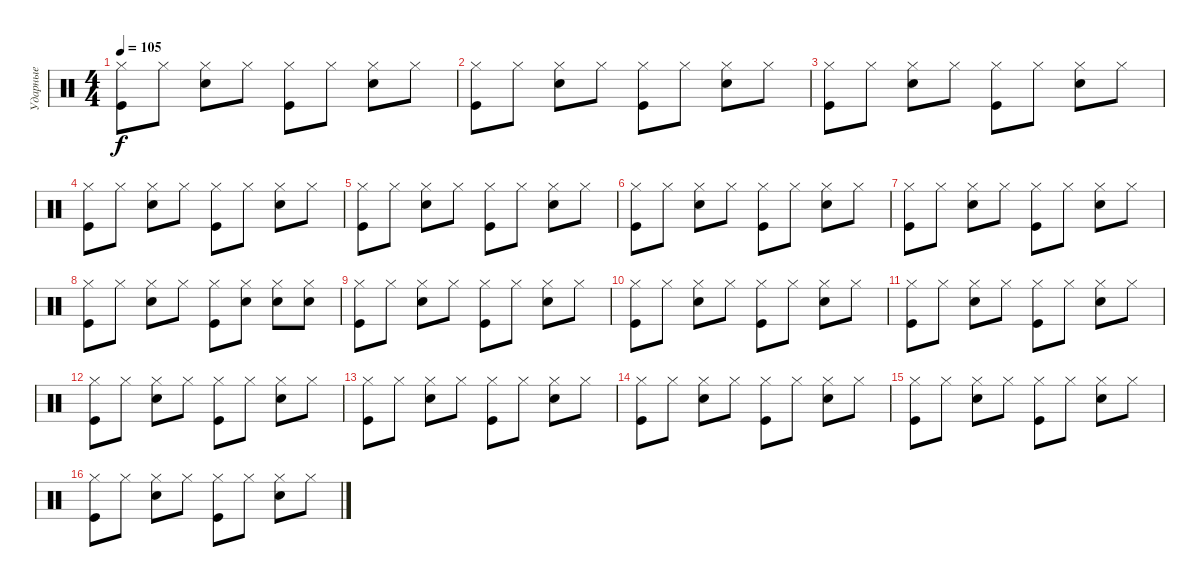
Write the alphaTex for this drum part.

\track ("Ударные" "Ударные") {instrument percussion}
\staff {score}
\articulation defaults
\ts (4 4)
\tempo 105
\clef neutral
\ks c
("Kick (hit)" "Hi-Hat (closed)").8{dy f} "Hi-Hat (closed)".8 ("Snare (hit) 2" "Hi-Hat (closed)").8 "Hi-Hat (closed)".8 ("Kick (hit)" "Hi-Hat (closed)").8 "Hi-Hat (closed)".8 ("Snare (hit) 2" "Hi-Hat (closed)").8 "Hi-Hat (closed)".8 |
("Kick (hit)" "Hi-Hat (closed)").8 "Hi-Hat (closed)".8 ("Snare (hit) 2" "Hi-Hat (closed)").8 "Hi-Hat (closed)".8 ("Kick (hit)" "Hi-Hat (closed)").8 "Hi-Hat (closed)".8 ("Snare (hit) 2" "Hi-Hat (closed)").8 "Hi-Hat (closed)".8 |
("Kick (hit)" "Hi-Hat (closed)").8 "Hi-Hat (closed)".8 ("Snare (hit) 2" "Hi-Hat (closed)").8 "Hi-Hat (closed)".8 ("Kick (hit)" "Hi-Hat (closed)").8 "Hi-Hat (closed)".8 ("Snare (hit) 2" "Hi-Hat (closed)").8 "Hi-Hat (closed)".8 |
("Kick (hit)" "Hi-Hat (closed)").8 "Hi-Hat (closed)".8 ("Snare (hit) 2" "Hi-Hat (closed)").8 "Hi-Hat (closed)".8 ("Kick (hit)" "Hi-Hat (closed)").8 "Hi-Hat (closed)".8 ("Snare (hit) 2" "Hi-Hat (closed)").8 "Hi-Hat (closed)".8 |
("Kick (hit)" "Hi-Hat (closed)").8 "Hi-Hat (closed)".8 ("Snare (hit) 2" "Hi-Hat (closed)").8 "Hi-Hat (closed)".8 ("Kick (hit)" "Hi-Hat (closed)").8 "Hi-Hat (closed)".8 ("Snare (hit) 2" "Hi-Hat (closed)").8 "Hi-Hat (closed)".8 |
("Kick (hit)" "Hi-Hat (closed)").8 "Hi-Hat (closed)".8 ("Snare (hit) 2" "Hi-Hat (closed)").8 "Hi-Hat (closed)".8 ("Kick (hit)" "Hi-Hat (closed)").8 "Hi-Hat (closed)".8 ("Snare (hit) 2" "Hi-Hat (closed)").8 "Hi-Hat (closed)".8 |
("Kick (hit)" "Hi-Hat (closed)").8 "Hi-Hat (closed)".8 ("Snare (hit) 2" "Hi-Hat (closed)").8 "Hi-Hat (closed)".8 ("Kick (hit)" "Hi-Hat (closed)").8 "Hi-Hat (closed)".8 ("Snare (hit) 2" "Hi-Hat (closed)").8 "Hi-Hat (closed)".8 |
("Kick (hit)" "Hi-Hat (closed)").8 "Hi-Hat (closed)".8 ("Snare (hit) 2" "Hi-Hat (closed)").8 "Hi-Hat (closed)".8 ("Kick (hit)" "Hi-Hat (closed)").8 ("Hi-Hat (closed)" "Snare (hit) 2").8 ("Snare (hit) 2" "Hi-Hat (closed)").8 ("Hi-Hat (closed)" "Snare (hit) 2").8 |
("Kick (hit)" "Hi-Hat (closed)").8 "Hi-Hat (closed)".8 ("Snare (hit) 2" "Hi-Hat (closed)").8 "Hi-Hat (closed)".8 ("Kick (hit)" "Hi-Hat (closed)").8 "Hi-Hat (closed)".8 ("Snare (hit) 2" "Hi-Hat (closed)").8 "Hi-Hat (closed)".8 |
("Kick (hit)" "Hi-Hat (closed)").8 "Hi-Hat (closed)".8 ("Snare (hit) 2" "Hi-Hat (closed)").8 "Hi-Hat (closed)".8 ("Kick (hit)" "Hi-Hat (closed)").8 "Hi-Hat (closed)".8 ("Snare (hit) 2" "Hi-Hat (closed)").8 "Hi-Hat (closed)".8 |
("Kick (hit)" "Hi-Hat (closed)").8 "Hi-Hat (closed)".8 ("Snare (hit) 2" "Hi-Hat (closed)").8 "Hi-Hat (closed)".8 ("Kick (hit)" "Hi-Hat (closed)").8 "Hi-Hat (closed)".8 ("Snare (hit) 2" "Hi-Hat (closed)").8 "Hi-Hat (closed)".8 |
("Kick (hit)" "Hi-Hat (closed)").8 "Hi-Hat (closed)".8 ("Snare (hit) 2" "Hi-Hat (closed)").8 "Hi-Hat (closed)".8 ("Kick (hit)" "Hi-Hat (closed)").8 "Hi-Hat (closed)".8 ("Snare (hit) 2" "Hi-Hat (closed)").8 "Hi-Hat (closed)".8 |
("Kick (hit)" "Hi-Hat (closed)").8 "Hi-Hat (closed)".8 ("Snare (hit) 2" "Hi-Hat (closed)").8 "Hi-Hat (closed)".8 ("Kick (hit)" "Hi-Hat (closed)").8 "Hi-Hat (closed)".8 ("Snare (hit) 2" "Hi-Hat (closed)").8 "Hi-Hat (closed)".8 |
("Kick (hit)" "Hi-Hat (closed)").8 "Hi-Hat (closed)".8 ("Snare (hit) 2" "Hi-Hat (closed)").8 "Hi-Hat (closed)".8 ("Kick (hit)" "Hi-Hat (closed)").8 "Hi-Hat (closed)".8 ("Snare (hit) 2" "Hi-Hat (closed)").8 "Hi-Hat (closed)".8 |
("Kick (hit)" "Hi-Hat (closed)").8 "Hi-Hat (closed)".8 ("Snare (hit) 2" "Hi-Hat (closed)").8 "Hi-Hat (closed)".8 ("Kick (hit)" "Hi-Hat (closed)").8 "Hi-Hat (closed)".8 ("Snare (hit) 2" "Hi-Hat (closed)").8 "Hi-Hat (closed)".8 |
("Kick (hit)" "Hi-Hat (closed)").8 "Hi-Hat (closed)".8 ("Snare (hit) 2" "Hi-Hat (closed)").8 "Hi-Hat (closed)".8 ("Kick (hit)" "Hi-Hat (closed)").8 "Hi-Hat (closed)".8 ("Snare (hit) 2" "Hi-Hat (closed)").8 "Hi-Hat (closed)".8
